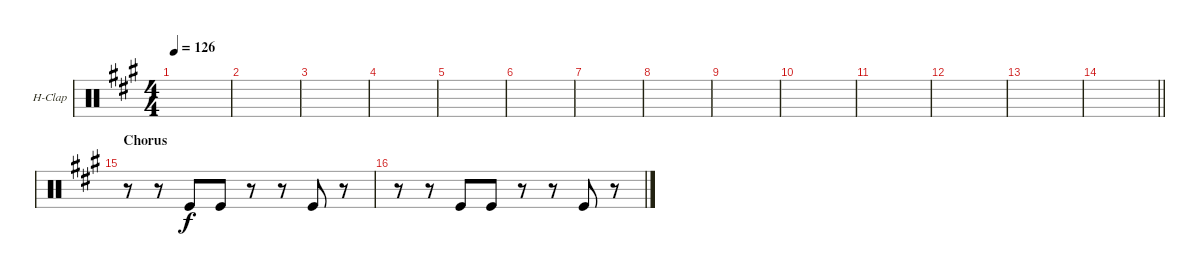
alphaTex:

\bracketExtendMode groupsimilarinstruments
\firstSystemTrackNameOrientation horizontal
\otherSystemsTrackNameOrientation horizontal
\track ("Hand Clap" "H-Clap") {instrument percussion}
\staff {score}
\articulation defaults
\ts (4 4)
\tempo 126
\clef neutral
\ks a
|
|
|
|
|
|
|
|
|
|
|
|
|
\barLineRight lightlight
|
\section ("" "Chorus")
r.8 r.8 "Kick (hit)".8 "Kick (hit)".8 r.8 r.8 "Kick (hit)".8 r.8 |
r.8 r.8 "Kick (hit)".8 "Kick (hit)".8 r.8 r.8 "Kick (hit)".8 r.8
